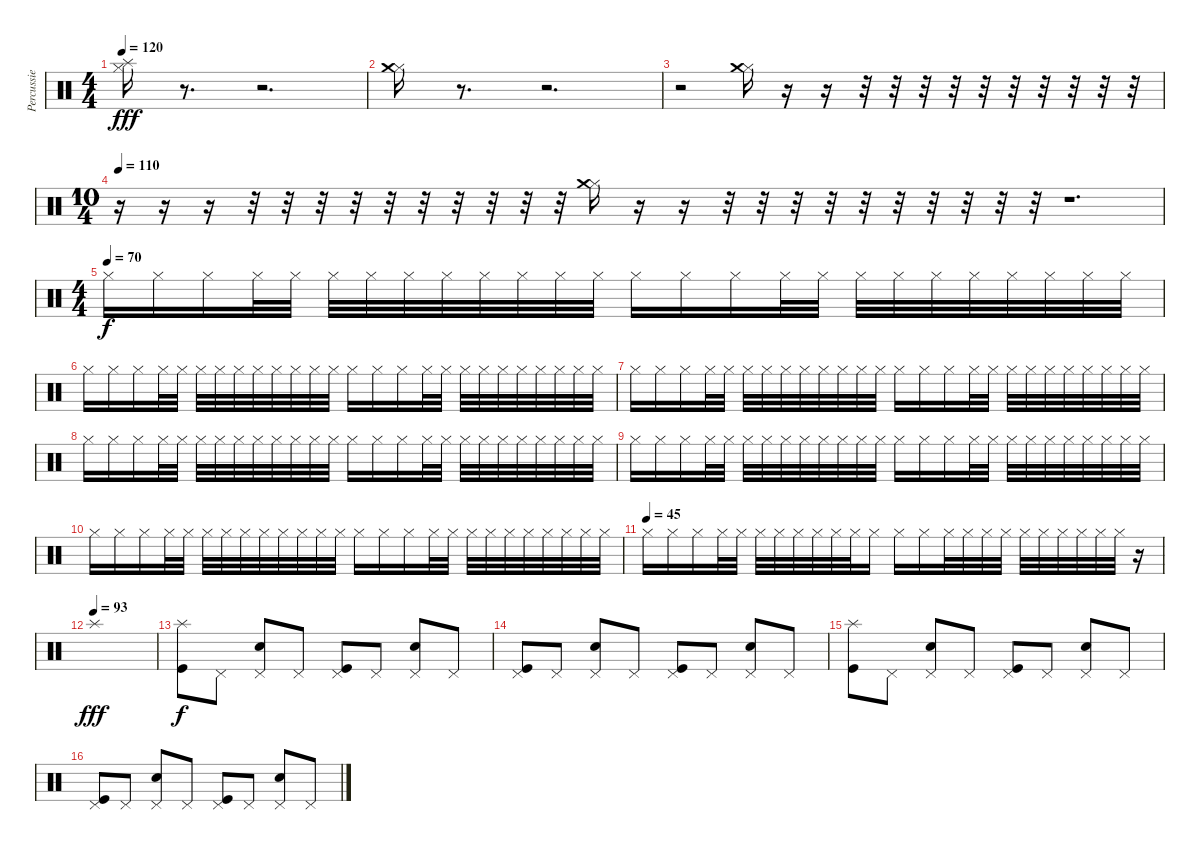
\track ("Percussie" "Percussie") {instrument percussion}
\staff {score}
\articulation defaults
\ts (4 4)
\tempo 120
\tempo 70
\tempo 120
\clef neutral
\ks c
("Hi-Hat (closed)" "Splash (hit)").16{dy fff} r.8{d} r.2{d} |
("Hi-Hat (closed)" "Crash medium (hit)").16 r.8{d} r.2{d} |
r.2 ("Hi-Hat (closed)" "Crash medium (hit)").16 r.16 r.16 r.32 r.32 r.32 r.32 r.32 r.32 r.32 r.32 r.32 r.32 |
\ts (10 4)
\tempo 110
r.16 r.16 r.16 r.32 r.32 r.32 r.32 r.32 r.32 r.32 r.32 r.32 r.32 ("Hi-Hat (closed)" "Crash medium (hit)").16 r.16 r.16 r.32 r.32 r.32 r.32 r.32 r.32 r.32 r.32 r.32 r.32 r.1{d} |
\ts (4 4)
\tempo (70)
"Hi-Hat (closed)".16{dy f volume 10} "Hi-Hat (closed)".16 "Hi-Hat (closed)".16 "Hi-Hat (closed)".32 "Hi-Hat (closed)".32 "Hi-Hat (closed)".32 "Hi-Hat (closed)".32 "Hi-Hat (closed)".32 "Hi-Hat (closed)".32 "Hi-Hat (closed)".32 "Hi-Hat (closed)".32 "Hi-Hat (closed)".32 "Hi-Hat (closed)".32 "Hi-Hat (closed)".16 "Hi-Hat (closed)".16 "Hi-Hat (closed)".16 "Hi-Hat (closed)".32 "Hi-Hat (closed)".32 "Hi-Hat (closed)".32 "Hi-Hat (closed)".32 "Hi-Hat (closed)".32 "Hi-Hat (closed)".32 "Hi-Hat (closed)".32 "Hi-Hat (closed)".32 "Hi-Hat (closed)".32 "Hi-Hat (closed)".32 |
"Hi-Hat (closed)".16 "Hi-Hat (closed)".16 "Hi-Hat (closed)".16 "Hi-Hat (closed)".32 "Hi-Hat (closed)".32 "Hi-Hat (closed)".32 "Hi-Hat (closed)".32 "Hi-Hat (closed)".32 "Hi-Hat (closed)".32 "Hi-Hat (closed)".32 "Hi-Hat (closed)".32 "Hi-Hat (closed)".32 "Hi-Hat (closed)".32 "Hi-Hat (closed)".16 "Hi-Hat (closed)".16 "Hi-Hat (closed)".16 "Hi-Hat (closed)".32 "Hi-Hat (closed)".32 "Hi-Hat (closed)".32 "Hi-Hat (closed)".32 "Hi-Hat (closed)".32 "Hi-Hat (closed)".32 "Hi-Hat (closed)".32 "Hi-Hat (closed)".32 "Hi-Hat (closed)".32 "Hi-Hat (closed)".32 |
"Hi-Hat (closed)".16 "Hi-Hat (closed)".16 "Hi-Hat (closed)".16 "Hi-Hat (closed)".32 "Hi-Hat (closed)".32 "Hi-Hat (closed)".32 "Hi-Hat (closed)".32 "Hi-Hat (closed)".32 "Hi-Hat (closed)".32 "Hi-Hat (closed)".32 "Hi-Hat (closed)".32 "Hi-Hat (closed)".32 "Hi-Hat (closed)".32 "Hi-Hat (closed)".16 "Hi-Hat (closed)".16 "Hi-Hat (closed)".16 "Hi-Hat (closed)".32 "Hi-Hat (closed)".32 "Hi-Hat (closed)".32 "Hi-Hat (closed)".32 "Hi-Hat (closed)".32 "Hi-Hat (closed)".32 "Hi-Hat (closed)".32 "Hi-Hat (closed)".32 "Hi-Hat (closed)".32 "Hi-Hat (closed)".32 |
"Hi-Hat (closed)".16 "Hi-Hat (closed)".16 "Hi-Hat (closed)".16 "Hi-Hat (closed)".32 "Hi-Hat (closed)".32 "Hi-Hat (closed)".32 "Hi-Hat (closed)".32 "Hi-Hat (closed)".32 "Hi-Hat (closed)".32 "Hi-Hat (closed)".32 "Hi-Hat (closed)".32 "Hi-Hat (closed)".32 "Hi-Hat (closed)".32 "Hi-Hat (closed)".16 "Hi-Hat (closed)".16 "Hi-Hat (closed)".16 "Hi-Hat (closed)".32 "Hi-Hat (closed)".32 "Hi-Hat (closed)".32 "Hi-Hat (closed)".32 "Hi-Hat (closed)".32 "Hi-Hat (closed)".32 "Hi-Hat (closed)".32 "Hi-Hat (closed)".32 "Hi-Hat (closed)".32 "Hi-Hat (closed)".32 |
"Hi-Hat (closed)".16 "Hi-Hat (closed)".16 "Hi-Hat (closed)".16 "Hi-Hat (closed)".32 "Hi-Hat (closed)".32 "Hi-Hat (closed)".32 "Hi-Hat (closed)".32 "Hi-Hat (closed)".32 "Hi-Hat (closed)".32 "Hi-Hat (closed)".32 "Hi-Hat (closed)".32 "Hi-Hat (closed)".32 "Hi-Hat (closed)".32 "Hi-Hat (closed)".16 "Hi-Hat (closed)".16 "Hi-Hat (closed)".16 "Hi-Hat (closed)".32 "Hi-Hat (closed)".32 "Hi-Hat (closed)".32 "Hi-Hat (closed)".32 "Hi-Hat (closed)".32 "Hi-Hat (closed)".32 "Hi-Hat (closed)".32 "Hi-Hat (closed)".32 "Hi-Hat (closed)".32 "Hi-Hat (closed)".32 |
"Hi-Hat (closed)".16 "Hi-Hat (closed)".16 "Hi-Hat (closed)".16 "Hi-Hat (closed)".32 "Hi-Hat (closed)".32 "Hi-Hat (closed)".32 "Hi-Hat (closed)".32 "Hi-Hat (closed)".32 "Hi-Hat (closed)".32 "Hi-Hat (closed)".32 "Hi-Hat (closed)".32 "Hi-Hat (closed)".32 "Hi-Hat (closed)".32 "Hi-Hat (closed)".16 "Hi-Hat (closed)".16 "Hi-Hat (closed)".16 "Hi-Hat (closed)".32 "Hi-Hat (closed)".32 "Hi-Hat (closed)".32 "Hi-Hat (closed)".32 "Hi-Hat (closed)".32 "Hi-Hat (closed)".32 "Hi-Hat (closed)".32 "Hi-Hat (closed)".32 "Hi-Hat (closed)".32 "Hi-Hat (closed)".32 |
\tempo (45)
"Hi-Hat (closed)".16 "Hi-Hat (closed)".16 "Hi-Hat (closed)".16 "Hi-Hat (closed)".32 "Hi-Hat (closed)".32 "Hi-Hat (closed)".32 "Hi-Hat (closed)".32 "Hi-Hat (closed)".32 "Hi-Hat (closed)".32 "Hi-Hat (closed)".32 "Hi-Hat (closed)".32 "Hi-Hat (closed)".16 "Hi-Hat (closed)".16 "Hi-Hat (closed)".16 "Hi-Hat (closed)".32 "Hi-Hat (closed)".32 "Hi-Hat (closed)".32 "Hi-Hat (closed)".32 "Hi-Hat (closed)".32 "Hi-Hat (closed)".32 "Hi-Hat (closed)".32 "Hi-Hat (closed)".32 "Hi-Hat (closed)".32 "Hi-Hat (closed)".32 r.16 |
\tempo (93)
"Splash (hit)".1{dy fff volume 16} |
("Splash (hit)" "Kick (hit)").8{dy f} "Pedal Hi-Hat (hit)".8 ("Electric Snare (hit)" "Pedal Hi-Hat (hit)").8 "Pedal Hi-Hat (hit)".8 ("Pedal Hi-Hat (hit)" "Kick (hit)").8 "Pedal Hi-Hat (hit)".8 ("Electric Snare (hit)" "Pedal Hi-Hat (hit)").8 "Pedal Hi-Hat (hit)".8 |
("Pedal Hi-Hat (hit)" "Kick (hit)").8 "Pedal Hi-Hat (hit)".8 ("Electric Snare (hit)" "Pedal Hi-Hat (hit)").8 "Pedal Hi-Hat (hit)".8 ("Pedal Hi-Hat (hit)" "Kick (hit)").8 "Pedal Hi-Hat (hit)".8 ("Electric Snare (hit)" "Pedal Hi-Hat (hit)").8 "Pedal Hi-Hat (hit)".8 |
("Splash (hit)" "Kick (hit)").8 "Pedal Hi-Hat (hit)".8 ("Electric Snare (hit)" "Pedal Hi-Hat (hit)").8 "Pedal Hi-Hat (hit)".8 ("Pedal Hi-Hat (hit)" "Kick (hit)").8 "Pedal Hi-Hat (hit)".8 ("Electric Snare (hit)" "Pedal Hi-Hat (hit)").8 "Pedal Hi-Hat (hit)".8 |
("Pedal Hi-Hat (hit)" "Kick (hit)").8 "Pedal Hi-Hat (hit)".8 ("Electric Snare (hit)" "Pedal Hi-Hat (hit)").8 "Pedal Hi-Hat (hit)".8 ("Pedal Hi-Hat (hit)" "Kick (hit)").8 "Pedal Hi-Hat (hit)".8 ("Electric Snare (hit)" "Pedal Hi-Hat (hit)").8 "Pedal Hi-Hat (hit)".8
